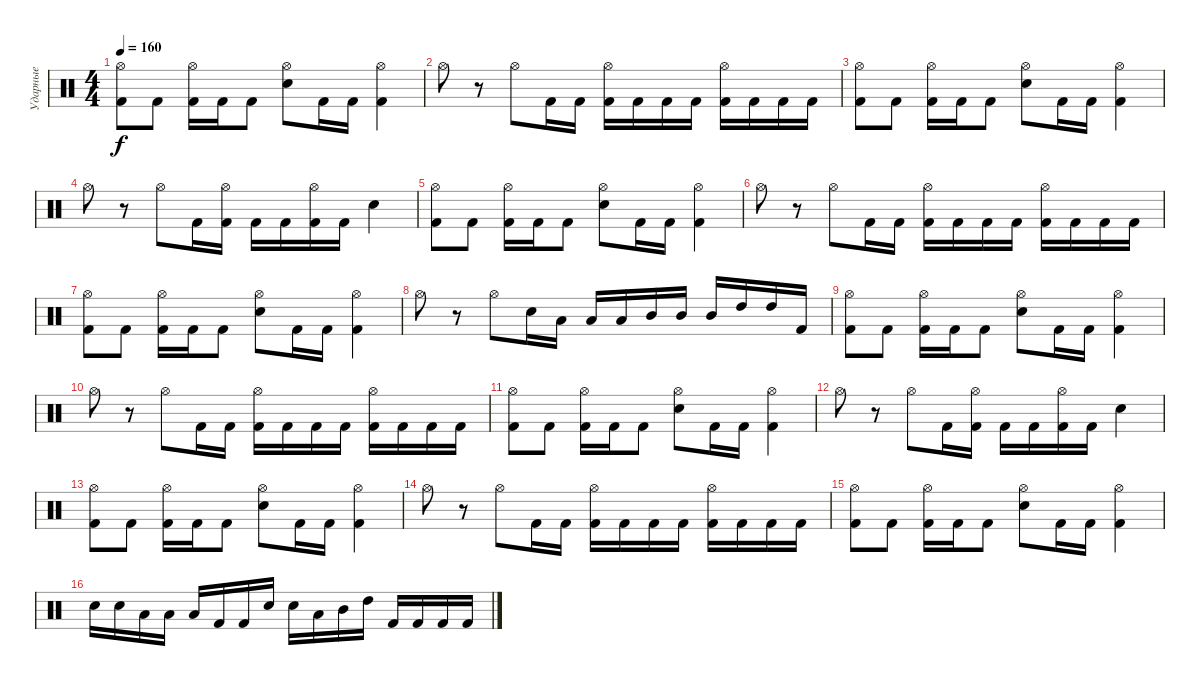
\track ("Ударные" "Ударные") {instrument percussion}
\staff {score}
\articulation defaults
\ts (4 4)
\tempo 160
\clef neutral
\ks c
("Hi-Hat (open)" "Kick (hit) 2").8{dy f} "Kick (hit) 2".8 ("Hi-Hat (open)" "Kick (hit) 2").16 "Kick (hit) 2".16 "Kick (hit) 2".8 ("Hi-Hat (open)" "Electric Snare (hit)").8 "Kick (hit) 2".16 "Kick (hit) 2".16 ("Hi-Hat (open)" "Kick (hit) 2").4 |
"Hi-Hat (open)".8 r.8 "Hi-Hat (open)".8 "Kick (hit) 2".16 "Kick (hit) 2".16 ("Hi-Hat (open)" "Kick (hit) 2").16 "Kick (hit) 2".16 "Kick (hit) 2".16 "Kick (hit) 2".16 ("Hi-Hat (open)" "Kick (hit) 2").16 "Kick (hit) 2".16 "Kick (hit) 2".16 "Kick (hit) 2".16 |
("Hi-Hat (open)" "Kick (hit) 2").8 "Kick (hit) 2".8 ("Hi-Hat (open)" "Kick (hit) 2").16 "Kick (hit) 2".16 "Kick (hit) 2".8 ("Hi-Hat (open)" "Electric Snare (hit)").8 "Kick (hit) 2".16 "Kick (hit) 2".16 ("Hi-Hat (open)" "Kick (hit) 2").4 |
"Hi-Hat (open)".8 r.8 "Hi-Hat (open)".8 "Kick (hit) 2".16 ("Hi-Hat (open)" "Kick (hit) 2").16 "Kick (hit) 2".16 "Kick (hit) 2".16 ("Hi-Hat (open)" "Kick (hit) 2").16 "Kick (hit) 2".16 "Electric Snare (hit)".4 |
("Hi-Hat (open)" "Kick (hit) 2").8 "Kick (hit) 2".8 ("Hi-Hat (open)" "Kick (hit) 2").16 "Kick (hit) 2".16 "Kick (hit) 2".8 ("Hi-Hat (open)" "Electric Snare (hit)").8 "Kick (hit) 2".16 "Kick (hit) 2".16 ("Hi-Hat (open)" "Kick (hit) 2").4 |
"Hi-Hat (open)".8 r.8 "Hi-Hat (open)".8 "Kick (hit) 2".16 "Kick (hit) 2".16 ("Hi-Hat (open)" "Kick (hit) 2").16 "Kick (hit) 2".16 "Kick (hit) 2".16 "Kick (hit) 2".16 ("Hi-Hat (open)" "Kick (hit) 2").16 "Kick (hit) 2".16 "Kick (hit) 2".16 "Kick (hit) 2".16 |
("Hi-Hat (open)" "Kick (hit) 2").8 "Kick (hit) 2".8 ("Hi-Hat (open)" "Kick (hit) 2").16 "Kick (hit) 2".16 "Kick (hit) 2".8 ("Hi-Hat (open)" "Electric Snare (hit)").8 "Kick (hit) 2".16 "Kick (hit) 2".16 ("Hi-Hat (open)" "Kick (hit) 2").4 |
"Hi-Hat (open)".8 r.8 "Hi-Hat (open)".8 "Electric Snare (hit)".16 "Low Tom (hit)".16 "Low Tom (hit)".16 "Low Tom (hit)".16 "Mid Tom (hit)".16 "Mid Tom (hit)".16 "Mid Tom (hit)".16 "High Tom (hit)".16 "High Tom (hit)".16 "Kick (hit) 2".16 |
("Hi-Hat (open)" "Kick (hit) 2").8 "Kick (hit) 2".8 ("Hi-Hat (open)" "Kick (hit) 2").16 "Kick (hit) 2".16 "Kick (hit) 2".8 ("Hi-Hat (open)" "Electric Snare (hit)").8 "Kick (hit) 2".16 "Kick (hit) 2".16 ("Hi-Hat (open)" "Kick (hit) 2").4 |
"Hi-Hat (open)".8 r.8 "Hi-Hat (open)".8 "Kick (hit) 2".16 "Kick (hit) 2".16 ("Hi-Hat (open)" "Kick (hit) 2").16 "Kick (hit) 2".16 "Kick (hit) 2".16 "Kick (hit) 2".16 ("Hi-Hat (open)" "Kick (hit) 2").16 "Kick (hit) 2".16 "Kick (hit) 2".16 "Kick (hit) 2".16 |
("Hi-Hat (open)" "Kick (hit) 2").8 "Kick (hit) 2".8 ("Hi-Hat (open)" "Kick (hit) 2").16 "Kick (hit) 2".16 "Kick (hit) 2".8 ("Hi-Hat (open)" "Electric Snare (hit)").8 "Kick (hit) 2".16 "Kick (hit) 2".16 ("Hi-Hat (open)" "Kick (hit) 2").4 |
"Hi-Hat (open)".8 r.8 "Hi-Hat (open)".8 "Kick (hit) 2".16 ("Hi-Hat (open)" "Kick (hit) 2").16 "Kick (hit) 2".16 "Kick (hit) 2".16 ("Hi-Hat (open)" "Kick (hit) 2").16 "Kick (hit) 2".16 "Electric Snare (hit)".4 |
("Hi-Hat (open)" "Kick (hit) 2").8 "Kick (hit) 2".8 ("Hi-Hat (open)" "Kick (hit) 2").16 "Kick (hit) 2".16 "Kick (hit) 2".8 ("Hi-Hat (open)" "Electric Snare (hit)").8 "Kick (hit) 2".16 "Kick (hit) 2".16 ("Hi-Hat (open)" "Kick (hit) 2").4 |
"Hi-Hat (open)".8 r.8 "Hi-Hat (open)".8 "Kick (hit) 2".16 "Kick (hit) 2".16 ("Hi-Hat (open)" "Kick (hit) 2").16 "Kick (hit) 2".16 "Kick (hit) 2".16 "Kick (hit) 2".16 ("Hi-Hat (open)" "Kick (hit) 2").16 "Kick (hit) 2".16 "Kick (hit) 2".16 "Kick (hit) 2".16 |
("Hi-Hat (open)" "Kick (hit) 2").8 "Kick (hit) 2".8 ("Hi-Hat (open)" "Kick (hit) 2").16 "Kick (hit) 2".16 "Kick (hit) 2".8 ("Hi-Hat (open)" "Electric Snare (hit)").8 "Kick (hit) 2".16 "Kick (hit) 2".16 ("Hi-Hat (open)" "Kick (hit) 2").4 |
"Electric Snare (hit)".16 "Electric Snare (hit)".16 "Low Tom (hit)".16 "Low Tom (hit)".16 "Low Tom (hit)".16 "Kick (hit) 2".16 "Kick (hit) 2".16 "Electric Snare (hit)".16 "Electric Snare (hit)".16 "Low Tom (hit)".16 "Mid Tom (hit)".16 "High Tom (hit)".16 "Kick (hit) 2".16 "Kick (hit) 2".16 "Kick (hit) 2".16 "Kick (hit) 2".16
